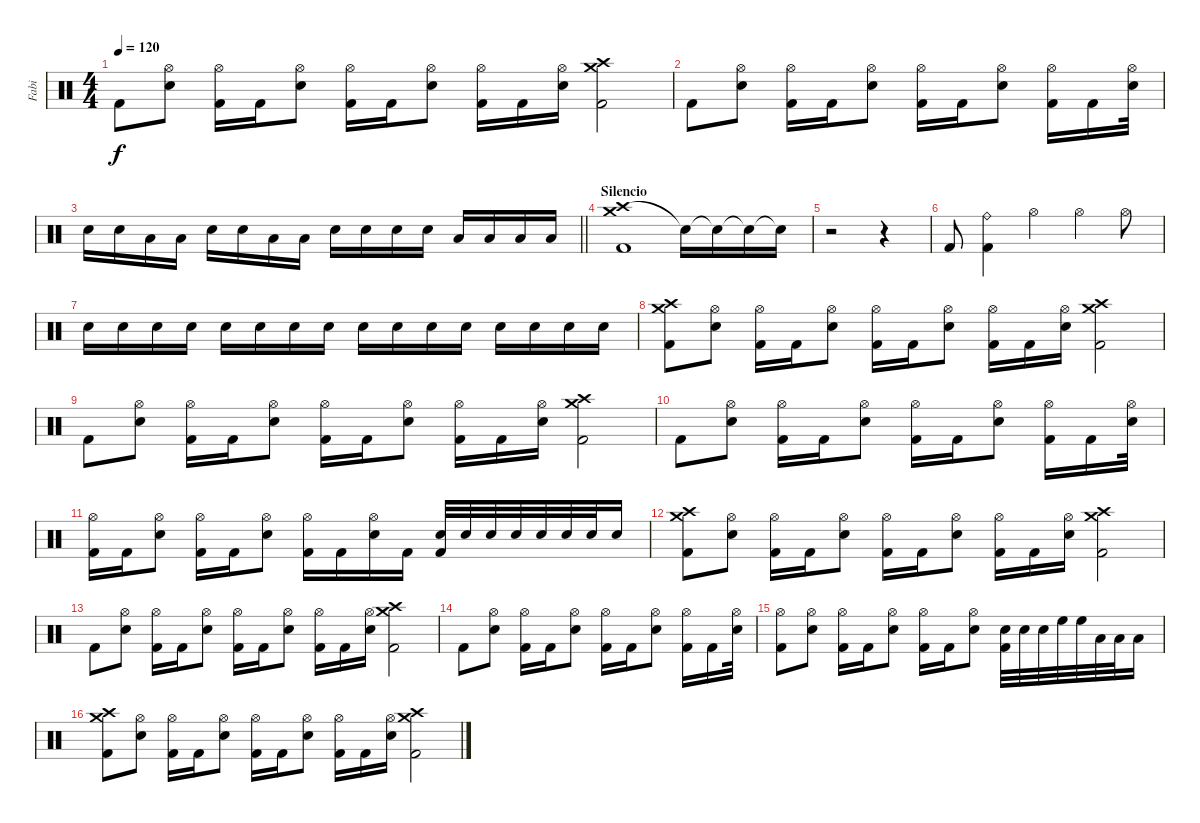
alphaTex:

\track ("Fabi" "Fabi") {instrument percussion}
\staff {score}
\articulation defaults
\ts (4 4)
\tempo 120
\clef neutral
\ks c "Kick (hit) 2".8{dy f}
("Hi-Hat (open)" "Snare (hit) 2").8 ("Hi-Hat (open)" "Kick (hit) 2").16 "Kick (hit) 2".16 ("Hi-Hat (open)" "Snare (hit) 2").8 ("Hi-Hat (open)" "Kick (hit) 2").16 "Kick (hit) 2".16 ("Hi-Hat (open)" "Snare (hit) 2").8 ("Hi-Hat (open)" "Kick (hit) 2").16 "Kick (hit) 2".16 ("Hi-Hat (open)" "Snare (hit) 2").16 ("Crash high (hit)" "Crash medium (hit)" "Kick (hit) 2").2 |
"Kick (hit) 2".8 ("Hi-Hat (open)" "Snare (hit) 2").8 ("Hi-Hat (open)" "Kick (hit) 2").16 "Kick (hit) 2".16 ("Hi-Hat (open)" "Snare (hit) 2").8 ("Hi-Hat (open)" "Kick (hit) 2").16 "Kick (hit) 2".16 ("Hi-Hat (open)" "Snare (hit) 2").8 ("Hi-Hat (open)" "Kick (hit) 2").16 "Kick (hit) 2".16 ("Hi-Hat (open)" "Snare (hit) 2").32 |
\barLineRight lightlight "Snare (hit) 2".16 "Snare (hit) 2".16 "Low Tom (hit)".16 "Low Tom (hit)".16 "Snare (hit) 2".16 "Snare (hit) 2".16 "Low Tom (hit)".16 "Low Tom (hit)".16 "Snare (hit) 2".16 "Snare (hit) 2".16 "Snare (hit) 2".16 "Snare (hit) 2".16 "Low Tom (hit)".16 "Low Tom (hit)".16 "Low Floor Tom (hit)".16 "Low Floor Tom (hit)".16
|
\section ("" "Silencio")
("Crash high (hit)" "Crash medium (hit)" "Kick (hit) 2").1 "Snare (hit)"{t}.16 "Snare (hit)"{t}.16 "Snare (hit)"{t}.16 "Snare (hit)"{t}.16 |
r.2 r.4 |
"Kick (hit) 2".8 ("Ride (bell)" "Kick (hit) 2").4 "Hi-Hat (open)".4 "Hi-Hat (open)".4 "Hi-Hat (open)".8 |
"Snare (hit) 2".16 "Snare (hit) 2".16 "Snare (hit) 2".16 "Snare (hit) 2".16 "Snare (hit) 2".16 "Snare (hit) 2".16 "Snare (hit) 2".16 "Snare (hit) 2".16 "Snare (hit) 2".16 "Snare (hit) 2".16 "Snare (hit) 2".16 "Snare (hit) 2".16 "Snare (hit) 2".16 "Snare (hit) 2".16 "Snare (hit) 2".16 "Snare (hit) 2".16 |
("Crash high (hit)" "Crash medium (hit)" "Kick (hit) 2").8 ("Hi-Hat (open)" "Snare (hit) 2").8 ("Hi-Hat (open)" "Kick (hit) 2").16 "Kick (hit) 2".16 ("Hi-Hat (open)" "Snare (hit) 2").8 ("Hi-Hat (open)" "Kick (hit) 2").16 "Kick (hit) 2".16 ("Hi-Hat (open)" "Snare (hit) 2").8 ("Hi-Hat (open)" "Kick (hit) 2").16 "Kick (hit) 2".16 ("Hi-Hat (open)" "Snare (hit) 2").16 ("Crash high (hit)" "Crash medium (hit)" "Kick (hit) 2").2 |
"Kick (hit) 2".8 ("Hi-Hat (open)" "Snare (hit) 2").8 ("Hi-Hat (open)" "Kick (hit) 2").16 "Kick (hit) 2".16 ("Hi-Hat (open)" "Snare (hit) 2").8 ("Hi-Hat (open)" "Kick (hit) 2").16 "Kick (hit) 2".16 ("Hi-Hat (open)" "Snare (hit) 2").8 ("Hi-Hat (open)" "Kick (hit) 2").16 "Kick (hit) 2".16 ("Hi-Hat (open)" "Snare (hit) 2").16 ("Crash high (hit)" "Crash medium (hit)" "Kick (hit) 2").2 |
"Kick (hit) 2".8 ("Hi-Hat (open)" "Snare (hit) 2").8 ("Hi-Hat (open)" "Kick (hit) 2").16 "Kick (hit) 2".16 ("Hi-Hat (open)" "Snare (hit) 2").8 ("Hi-Hat (open)" "Kick (hit) 2").16 "Kick (hit) 2".16 ("Hi-Hat (open)" "Snare (hit) 2").8 ("Hi-Hat (open)" "Kick (hit) 2").16 "Kick (hit) 2".16 ("Hi-Hat (open)" "Snare (hit) 2").32 |
("Hi-Hat (open)" "Kick (hit) 2").16 "Kick (hit) 2".16 ("Hi-Hat (open)" "Snare (hit) 2").8 ("Hi-Hat (open)" "Kick (hit) 2").16 "Kick (hit) 2".16 ("Hi-Hat (open)" "Snare (hit) 2").8 ("Hi-Hat (open)" "Kick (hit) 2").16 "Kick (hit) 2".16 ("Hi-Hat (open)" "Snare (hit) 2").16 "Kick (hit) 2".16 ("Snare (hit) 2" "Kick (hit) 2").32 "Snare (hit) 2".32 "Snare (hit) 2".32 "Snare (hit) 2".32 "Snare (hit) 2".32 "Snare (hit) 2".32 "Snare (hit) 2".32 "Snare (hit) 2".16 |
("Crash high (hit)" "Crash medium (hit)" "Kick (hit) 2").8 ("Hi-Hat (open)" "Snare (hit) 2").8 ("Hi-Hat (open)" "Kick (hit) 2").16 "Kick (hit) 2".16 ("Hi-Hat (open)" "Snare (hit) 2").8 ("Hi-Hat (open)" "Kick (hit) 2").16 "Kick (hit) 2".16 ("Hi-Hat (open)" "Snare (hit) 2").8 ("Hi-Hat (open)" "Kick (hit) 2").16 "Kick (hit) 2".16 ("Hi-Hat (open)" "Snare (hit) 2").16 ("Crash high (hit)" "Crash medium (hit)" "Kick (hit) 2").2 |
"Kick (hit) 2".8 ("Hi-Hat (open)" "Snare (hit) 2").8 ("Hi-Hat (open)" "Kick (hit) 2").16 "Kick (hit) 2".16 ("Hi-Hat (open)" "Snare (hit) 2").8 ("Hi-Hat (open)" "Kick (hit) 2").16 "Kick (hit) 2".16 ("Hi-Hat (open)" "Snare (hit) 2").8 ("Hi-Hat (open)" "Kick (hit) 2").16 "Kick (hit) 2".16 ("Hi-Hat (open)" "Snare (hit) 2").16 ("Crash high (hit)" "Crash medium (hit)" "Kick (hit) 2").2 |
"Kick (hit) 2".8 ("Hi-Hat (open)" "Snare (hit) 2").8 ("Hi-Hat (open)" "Kick (hit) 2").16 "Kick (hit) 2".16 ("Hi-Hat (open)" "Snare (hit) 2").8 ("Hi-Hat (open)" "Kick (hit) 2").16 "Kick (hit) 2".16 ("Hi-Hat (open)" "Snare (hit) 2").8 ("Hi-Hat (open)" "Kick (hit) 2").16 "Kick (hit) 2".16 ("Hi-Hat (open)" "Snare (hit) 2").32 |
("Hi-Hat (open)" "Kick (hit) 2").8 ("Hi-Hat (open)" "Snare (hit) 2").8 ("Hi-Hat (open)" "Kick (hit) 2").16 "Kick (hit) 2".16 ("Hi-Hat (open)" "Snare (hit) 2").8 ("Hi-Hat (open)" "Kick (hit) 2").16 "Kick (hit) 2".16 ("Hi-Hat (open)" "Snare (hit) 2").8 ("Snare (hit) 2" "Kick (hit) 2").32 "Snare (hit) 2".32 "Snare (hit) 2".32 "High Floor Tom (hit)".32 "High Floor Tom (hit)".32 "Low Tom (hit)".32 "Low Tom (hit)".32 "Low Tom (hit)".16 |
("Crash high (hit)" "Crash medium (hit)" "Kick (hit) 2").8 ("Hi-Hat (open)" "Snare (hit) 2").8 ("Hi-Hat (open)" "Kick (hit) 2").16 "Kick (hit) 2".16 ("Hi-Hat (open)" "Snare (hit) 2").8 ("Hi-Hat (open)" "Kick (hit) 2").16 "Kick (hit) 2".16 ("Hi-Hat (open)" "Snare (hit) 2").8 ("Hi-Hat (open)" "Kick (hit) 2").16 "Kick (hit) 2".16 ("Hi-Hat (open)" "Snare (hit) 2").16 ("Crash high (hit)" "Crash medium (hit)" "Kick (hit) 2").2
